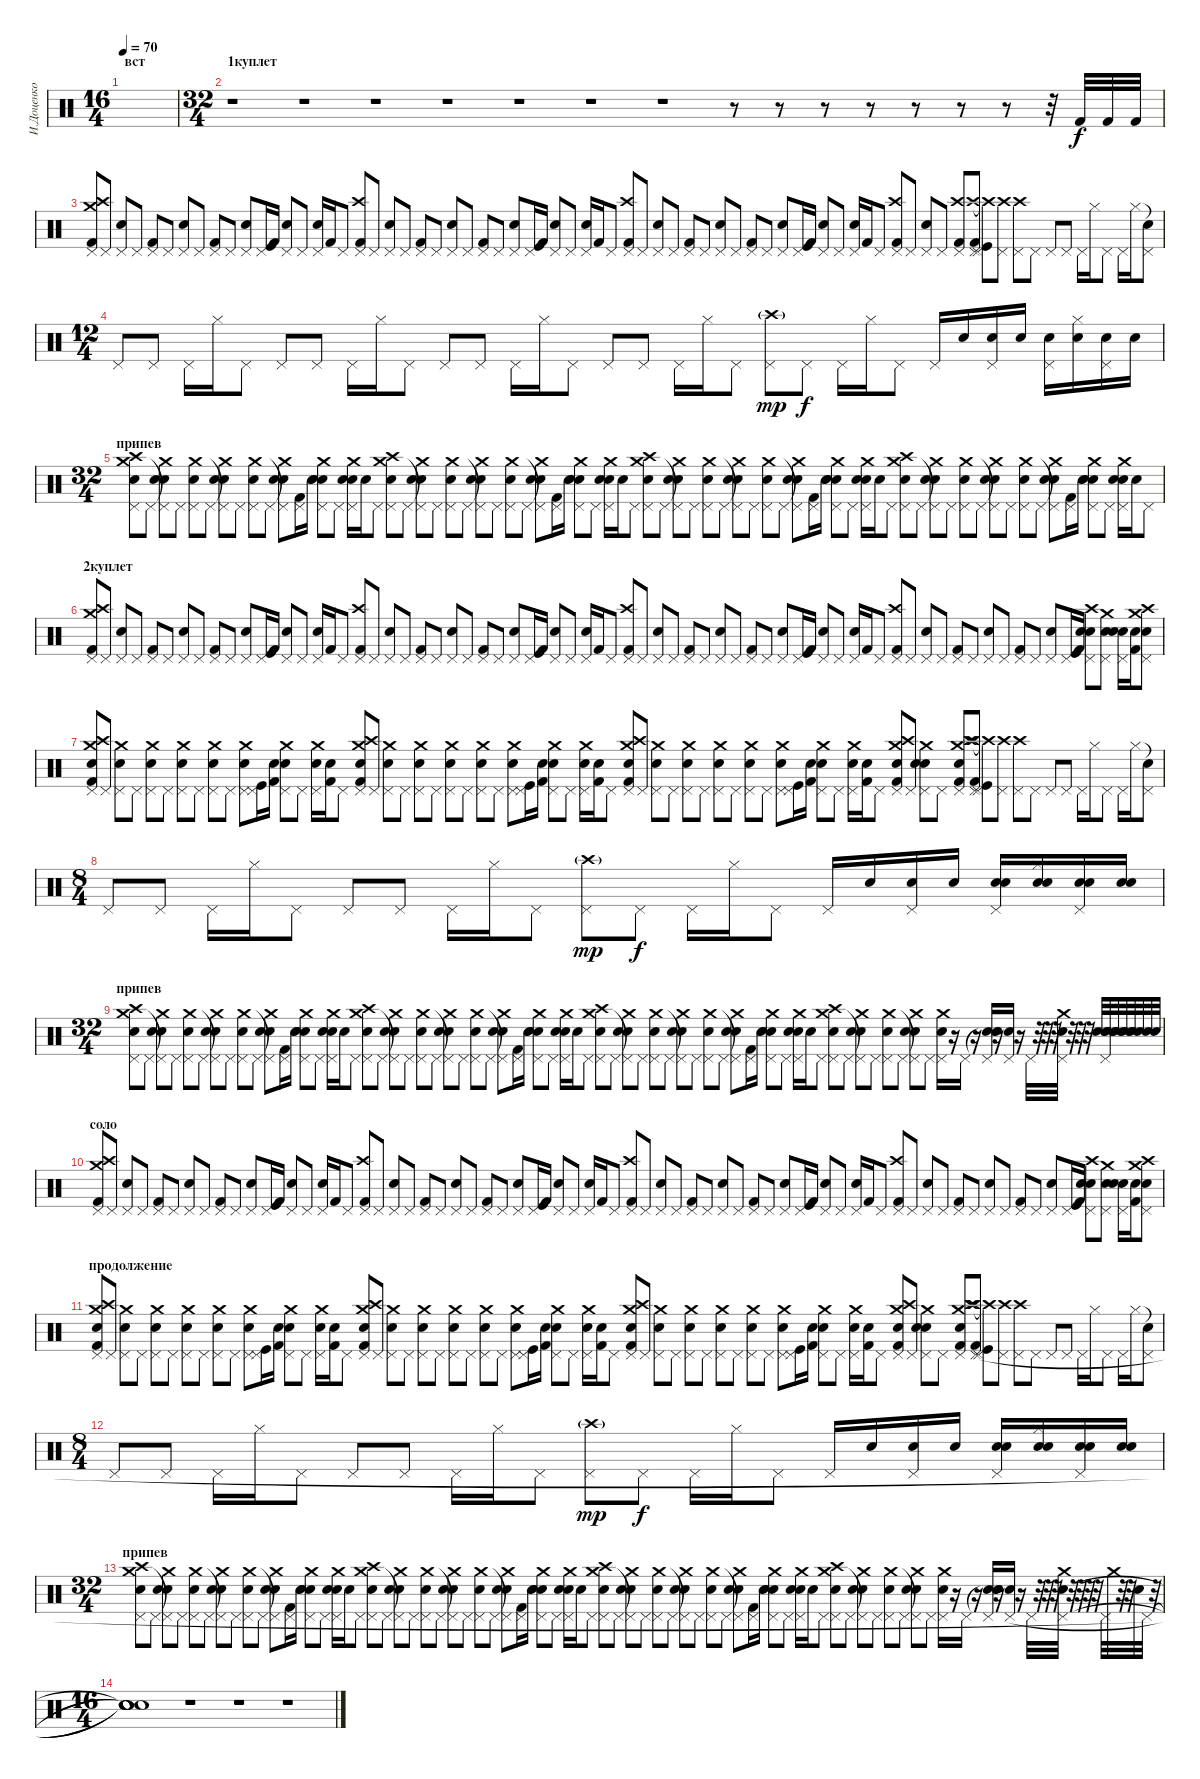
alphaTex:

\track ("И.Доценко" "И.Доценко") {instrument percussion}
\staff {score}
\articulation defaults
\ts (16 4)
\section ("" "вст")
\tempo 70
\clef neutral
\ks c
|
\ts (32 4)
\section ("" "1куплет")
r.1 r.1 r.1 r.1 r.1 r.1 r.1 r.8 r.8 r.8 r.8 r.8 r.8 r.8 r.32 "Kick (hit) 2".32 "Kick (hit) 2".32 "Kick (hit) 2".32 |
("Crash medium (hit)" "Crash high (hit)" "Kick (hit) 2" "Pedal Hi-Hat (hit)").8 "Pedal Hi-Hat (hit)".8 ("Electric Snare (hit)" "Pedal Hi-Hat (hit)").8 "Pedal Hi-Hat (hit)".8 ("Kick (hit) 2" "Pedal Hi-Hat (hit)").8 "Pedal Hi-Hat (hit)".8 ("Electric Snare (hit)" "Pedal Hi-Hat (hit)").8 "Pedal Hi-Hat (hit)".8 ("Kick (hit) 2" "Pedal Hi-Hat (hit)").8 "Pedal Hi-Hat (hit)".8 ("Electric Snare (hit)" "Pedal Hi-Hat (hit)").8 ("Kick (hit)" "Pedal Hi-Hat (hit)").16 "Kick (hit) 2".16 ("Electric Snare (hit)" "Pedal Hi-Hat (hit)").8 "Pedal Hi-Hat (hit)".8 ("Electric Snare (hit)" "Pedal Hi-Hat (hit)").16 "Kick (hit) 2".16 "Pedal Hi-Hat (hit)".8 ("Crash high (hit)" "Kick (hit) 2" "Pedal Hi-Hat (hit)").8 "Pedal Hi-Hat (hit)".8 ("Electric Snare (hit)" "Pedal Hi-Hat (hit)").8 "Pedal Hi-Hat (hit)".8 ("Kick (hit) 2" "Pedal Hi-Hat (hit)").8 "Pedal Hi-Hat (hit)".8 ("Electric Snare (hit)" "Pedal Hi-Hat (hit)").8 "Pedal Hi-Hat (hit)".8 ("Kick (hit) 2" "Pedal Hi-Hat (hit)").8 "Pedal Hi-Hat (hit)".8 ("Electric Snare (hit)" "Pedal Hi-Hat (hit)").8 ("Kick (hit)" "Pedal Hi-Hat (hit)").16 "Kick (hit) 2".16 ("Electric Snare (hit)" "Pedal Hi-Hat (hit)").8 "Pedal Hi-Hat (hit)".8 ("Electric Snare (hit)" "Pedal Hi-Hat (hit)").16 "Kick (hit) 2".16 "Pedal Hi-Hat (hit)".8 ("Crash high (hit)" "Kick (hit) 2" "Pedal Hi-Hat (hit)").8 "Pedal Hi-Hat (hit)".8 ("Electric Snare (hit)" "Pedal Hi-Hat (hit)").8 "Pedal Hi-Hat (hit)".8 ("Kick (hit) 2" "Pedal Hi-Hat (hit)").8 "Pedal Hi-Hat (hit)".8 ("Electric Snare (hit)" "Pedal Hi-Hat (hit)").8 "Pedal Hi-Hat (hit)".8 ("Kick (hit) 2" "Pedal Hi-Hat (hit)").8 "Pedal Hi-Hat (hit)".8 ("Electric Snare (hit)" "Pedal Hi-Hat (hit)").8 ("Kick (hit)" "Pedal Hi-Hat (hit)").16 "Kick (hit) 2".16 ("Electric Snare (hit)" "Pedal Hi-Hat (hit)").8 "Pedal Hi-Hat (hit)".8 ("Electric Snare (hit)" "Pedal Hi-Hat (hit)").16 "Kick (hit) 2".16 "Pedal Hi-Hat (hit)".8 ("Crash high (hit)" "Kick (hit) 2" "Pedal Hi-Hat (hit)").8 "Pedal Hi-Hat (hit)".8 ("Electric Snare (hit)" "Pedal Hi-Hat (hit)").8 "Pedal Hi-Hat (hit)".8 ("Crash high (hit)" "Kick (hit) 2" "Pedal Hi-Hat (hit)").8 ("Crash high (hit)" "Kick (hit) 2" "Pedal Hi-Hat (hit)").8 ("Crash high (hit)"{t} "Kick (hit)" "Pedal Hi-Hat (hit)").8 ("Crash high (hit)" "Pedal Hi-Hat (hit)").8 ("Crash high (hit)" "Pedal Hi-Hat (hit)").8 "Pedal Hi-Hat (hit)".8{volume 12} "Pedal Hi-Hat (hit)".8 "Pedal Hi-Hat (hit)".8 "Pedal Hi-Hat (hit)".16 "Hi-Hat (closed)".16 "Pedal Hi-Hat (hit)".8 "Pedal Hi-Hat (hit)".16 "Hi-Hat (closed)".16 ("Snare (hit)"{t} "Pedal Hi-Hat (hit)").8 |
\ts (12 4)
"Pedal Hi-Hat (hit)".8 "Pedal Hi-Hat (hit)".8 "Pedal Hi-Hat (hit)".16 "Hi-Hat (closed)".16 "Pedal Hi-Hat (hit)".8 "Pedal Hi-Hat (hit)".8 "Pedal Hi-Hat (hit)".8 "Pedal Hi-Hat (hit)".16 "Hi-Hat (closed)".16 "Pedal Hi-Hat (hit)".8 "Pedal Hi-Hat (hit)".8 "Pedal Hi-Hat (hit)".8 "Pedal Hi-Hat (hit)".16 "Hi-Hat (closed)".16 "Pedal Hi-Hat (hit)".8 "Pedal Hi-Hat (hit)".8 "Pedal Hi-Hat (hit)".8 "Pedal Hi-Hat (hit)".16 "Hi-Hat (closed)".16 "Pedal Hi-Hat (hit)".8 ("Crash high (hit)"{g} "Pedal Hi-Hat (hit)").8{dy mp volume 16} "Pedal Hi-Hat (hit)".8{dy f} "Pedal Hi-Hat (hit)".16 "Hi-Hat (closed)".16 "Pedal Hi-Hat (hit)".8 "Pedal Hi-Hat (hit)".16 "Snare (hit) 2".16 ("Snare (hit) 2" "Pedal Hi-Hat (hit)").16 "Snare (hit) 2".16 ("Snare (hit) 2" "Pedal Hi-Hat (hit)").16 ("Snare (hit) 2" "Hi-Hat (closed)").16 ("Snare (hit) 2" "Pedal Hi-Hat (hit)").16 "Snare (hit) 2".16 |
\ts (32 4)
\section ("" "припев")
("Crash medium (hit)" "Crash high (hit)" "Snare (hit) 2" "Pedal Hi-Hat (hit)").8 "Pedal Hi-Hat (hit)".8 ("Crash medium (hit)"{t} "Snare (hit) 2" "Electric Snare (hit)" "Pedal Hi-Hat (hit)").8 "Pedal Hi-Hat (hit)".8 ("Crash medium (hit)" "Snare (hit) 2" "Pedal Hi-Hat (hit)").8 "Pedal Hi-Hat (hit)".8 ("Crash medium (hit)"{t} "Snare (hit) 2" "Electric Snare (hit)" "Pedal Hi-Hat (hit)").8 "Pedal Hi-Hat (hit)".8 ("Crash medium (hit)" "Snare (hit) 2" "Pedal Hi-Hat (hit)").8 "Pedal Hi-Hat (hit)".8 ("Crash medium (hit)"{t} "Snare (hit) 2" "Electric Snare (hit)" "Pedal Hi-Hat (hit)").8 ("Kick (hit) 2" "Pedal Hi-Hat (hit)").16 "Snare (hit) 2".16 ("Crash medium (hit)" "Snare (hit) 2" "Electric Snare (hit)" "Pedal Hi-Hat (hit)").8 "Pedal Hi-Hat (hit)".8 ("Crash medium (hit)" "Snare (hit) 2" "Electric Snare (hit)" "Pedal Hi-Hat (hit)").16 "Snare (hit) 2".16 "Pedal Hi-Hat (hit)".8 ("Crash medium (hit)" "Crash high (hit)" "Snare (hit) 2" "Pedal Hi-Hat (hit)").8 "Pedal Hi-Hat (hit)".8 ("Crash medium (hit)"{t} "Snare (hit) 2" "Electric Snare (hit)" "Pedal Hi-Hat (hit)").8 "Pedal Hi-Hat (hit)".8 ("Crash medium (hit)" "Snare (hit) 2" "Pedal Hi-Hat (hit)").8 "Pedal Hi-Hat (hit)".8 ("Crash medium (hit)"{t} "Snare (hit) 2" "Electric Snare (hit)" "Pedal Hi-Hat (hit)").8 "Pedal Hi-Hat (hit)".8 ("Crash medium (hit)" "Snare (hit) 2" "Pedal Hi-Hat (hit)").8 "Pedal Hi-Hat (hit)".8 ("Crash medium (hit)"{t} "Snare (hit) 2" "Electric Snare (hit)" "Pedal Hi-Hat (hit)").8 ("Kick (hit) 2" "Pedal Hi-Hat (hit)").16 "Snare (hit) 2".16 ("Crash medium (hit)" "Snare (hit) 2" "Electric Snare (hit)" "Pedal Hi-Hat (hit)").8 "Pedal Hi-Hat (hit)".8 ("Crash medium (hit)" "Snare (hit) 2" "Electric Snare (hit)" "Pedal Hi-Hat (hit)").16 "Snare (hit) 2".16 "Pedal Hi-Hat (hit)".8 ("Crash medium (hit)" "Crash high (hit)" "Snare (hit) 2" "Pedal Hi-Hat (hit)").8 "Pedal Hi-Hat (hit)".8 ("Crash medium (hit)"{t} "Snare (hit) 2" "Electric Snare (hit)" "Pedal Hi-Hat (hit)").8 "Pedal Hi-Hat (hit)".8 ("Crash medium (hit)" "Snare (hit) 2" "Pedal Hi-Hat (hit)").8 "Pedal Hi-Hat (hit)".8 ("Crash medium (hit)"{t} "Snare (hit) 2" "Electric Snare (hit)" "Pedal Hi-Hat (hit)").8 "Pedal Hi-Hat (hit)".8 ("Crash medium (hit)" "Snare (hit) 2" "Pedal Hi-Hat (hit)").8 "Pedal Hi-Hat (hit)".8 ("Crash medium (hit)"{t} "Snare (hit) 2" "Electric Snare (hit)" "Pedal Hi-Hat (hit)").8 ("Kick (hit) 2" "Pedal Hi-Hat (hit)").16 "Snare (hit) 2".16 ("Crash medium (hit)" "Snare (hit) 2" "Electric Snare (hit)" "Pedal Hi-Hat (hit)").8 "Pedal Hi-Hat (hit)".8 ("Crash medium (hit)" "Snare (hit) 2" "Electric Snare (hit)" "Pedal Hi-Hat (hit)").16 "Snare (hit) 2".16 "Pedal Hi-Hat (hit)".8 ("Crash medium (hit)" "Crash high (hit)" "Snare (hit) 2" "Pedal Hi-Hat (hit)").8 "Pedal Hi-Hat (hit)".8 ("Crash medium (hit)"{t} "Snare (hit) 2" "Electric Snare (hit)" "Pedal Hi-Hat (hit)").8 "Pedal Hi-Hat (hit)".8 ("Crash medium (hit)" "Snare (hit) 2" "Pedal Hi-Hat (hit)").8 "Pedal Hi-Hat (hit)".8 ("Crash medium (hit)"{t} "Snare (hit) 2" "Electric Snare (hit)" "Pedal Hi-Hat (hit)").8 "Pedal Hi-Hat (hit)".8 ("Crash medium (hit)" "Snare (hit) 2" "Pedal Hi-Hat (hit)").8 "Pedal Hi-Hat (hit)".8 ("Crash medium (hit)"{t} "Snare (hit) 2" "Electric Snare (hit)" "Pedal Hi-Hat (hit)").8 ("Kick (hit) 2" "Pedal Hi-Hat (hit)").16 "Snare (hit) 2".16 ("Crash medium (hit)" "Snare (hit) 2" "Electric Snare (hit)" "Pedal Hi-Hat (hit)").8 "Pedal Hi-Hat (hit)".8 ("Crash medium (hit)" "Snare (hit) 2" "Electric Snare (hit)" "Pedal Hi-Hat (hit)").16 "Snare (hit) 2".16 "Pedal Hi-Hat (hit)".8 |
\section ("" "2куплет")
("Crash medium (hit)" "Crash high (hit)" "Kick (hit) 2" "Pedal Hi-Hat (hit)").8 "Pedal Hi-Hat (hit)".8 ("Electric Snare (hit)" "Pedal Hi-Hat (hit)").8 "Pedal Hi-Hat (hit)".8 ("Kick (hit) 2" "Pedal Hi-Hat (hit)").8 "Pedal Hi-Hat (hit)".8 ("Electric Snare (hit)" "Pedal Hi-Hat (hit)").8 "Pedal Hi-Hat (hit)".8 ("Kick (hit) 2" "Pedal Hi-Hat (hit)").8 "Pedal Hi-Hat (hit)".8 ("Electric Snare (hit)" "Pedal Hi-Hat (hit)").8 ("Kick (hit)" "Pedal Hi-Hat (hit)").16 "Kick (hit) 2".16 ("Electric Snare (hit)" "Pedal Hi-Hat (hit)").8 "Pedal Hi-Hat (hit)".8 ("Electric Snare (hit)" "Pedal Hi-Hat (hit)").16 "Kick (hit) 2".16 "Pedal Hi-Hat (hit)".8 ("Crash high (hit)" "Kick (hit) 2" "Pedal Hi-Hat (hit)").8 "Pedal Hi-Hat (hit)".8 ("Electric Snare (hit)" "Pedal Hi-Hat (hit)").8 "Pedal Hi-Hat (hit)".8 ("Kick (hit) 2" "Pedal Hi-Hat (hit)").8 "Pedal Hi-Hat (hit)".8 ("Electric Snare (hit)" "Pedal Hi-Hat (hit)").8 "Pedal Hi-Hat (hit)".8 ("Kick (hit) 2" "Pedal Hi-Hat (hit)").8 "Pedal Hi-Hat (hit)".8 ("Electric Snare (hit)" "Pedal Hi-Hat (hit)").8 ("Kick (hit)" "Pedal Hi-Hat (hit)").16 "Kick (hit) 2".16 ("Electric Snare (hit)" "Pedal Hi-Hat (hit)").8 "Pedal Hi-Hat (hit)".8 ("Electric Snare (hit)" "Pedal Hi-Hat (hit)").16 "Kick (hit) 2".16 "Pedal Hi-Hat (hit)".8 ("Crash high (hit)" "Kick (hit) 2" "Pedal Hi-Hat (hit)").8 "Pedal Hi-Hat (hit)".8 ("Electric Snare (hit)" "Pedal Hi-Hat (hit)").8 "Pedal Hi-Hat (hit)".8 ("Kick (hit) 2" "Pedal Hi-Hat (hit)").8 "Pedal Hi-Hat (hit)".8 ("Electric Snare (hit)" "Pedal Hi-Hat (hit)").8 "Pedal Hi-Hat (hit)".8 ("Kick (hit) 2" "Pedal Hi-Hat (hit)").8 "Pedal Hi-Hat (hit)".8 ("Electric Snare (hit)" "Pedal Hi-Hat (hit)").8 ("Kick (hit)" "Pedal Hi-Hat (hit)").16 "Kick (hit) 2".16 ("Electric Snare (hit)" "Pedal Hi-Hat (hit)").8 "Pedal Hi-Hat (hit)".8 ("Electric Snare (hit)" "Pedal Hi-Hat (hit)").16 "Kick (hit) 2".16 "Pedal Hi-Hat (hit)".8 ("Crash high (hit)" "Kick (hit) 2" "Pedal Hi-Hat (hit)").8 "Pedal Hi-Hat (hit)".8 ("Electric Snare (hit)" "Pedal Hi-Hat (hit)").8 "Pedal Hi-Hat (hit)".8 ("Kick (hit) 2" "Pedal Hi-Hat (hit)").8 "Pedal Hi-Hat (hit)".8 ("Electric Snare (hit)" "Pedal Hi-Hat (hit)").8 "Pedal Hi-Hat (hit)".8 ("Kick (hit) 2" "Pedal Hi-Hat (hit)").8 "Pedal Hi-Hat (hit)".8 ("Electric Snare (hit)" "Pedal Hi-Hat (hit)").8 ("Kick (hit)" "Pedal Hi-Hat (hit)").16 "Kick (hit) 2".16 ("Crash high (hit)" "Snare (hit) 2" "Electric Snare (hit)" "Pedal Hi-Hat (hit)").8 ("Crash medium (hit)" "Snare (hit) 2" "Pedal Hi-Hat (hit)").8 ("Snare (hit) 2" "Electric Snare (hit)" "Pedal Hi-Hat (hit)").16 ("Snare (hit) 2" "Kick (hit) 2").16 ("Crash high (hit)" "Snare (hit) 2" "Crash medium (hit)" "Pedal Hi-Hat (hit)").8 |
("Crash medium (hit)" "Crash high (hit)" "Kick (hit) 2" "Snare (hit) 2" "Pedal Hi-Hat (hit)").8 "Pedal Hi-Hat (hit)".8 ("Crash medium (hit)" "Electric Snare (hit)" "Pedal Hi-Hat (hit)").8 "Pedal Hi-Hat (hit)".8 ("Crash medium (hit)" "Snare (hit) 2" "Pedal Hi-Hat (hit)").8 "Pedal Hi-Hat (hit)".8 ("Crash medium (hit)" "Electric Snare (hit)" "Pedal Hi-Hat (hit)").8 "Pedal Hi-Hat (hit)".8 ("Crash medium (hit)" "Snare (hit) 2" "Pedal Hi-Hat (hit)").8 "Pedal Hi-Hat (hit)".8 ("Crash medium (hit)" "Electric Snare (hit)" "Pedal Hi-Hat (hit)").8 ("Kick (hit)" "Pedal Hi-Hat (hit)").16 ("Snare (hit) 2" "Kick (hit) 2").16 ("Crash medium (hit)" "Electric Snare (hit)" "Pedal Hi-Hat (hit)").8 "Pedal Hi-Hat (hit)".8 ("Crash medium (hit)" "Electric Snare (hit)" "Pedal Hi-Hat (hit)").16 ("Snare (hit) 2" "Kick (hit) 2").16 "Pedal Hi-Hat (hit)".8 ("Crash high (hit)" "Crash medium (hit)" "Kick (hit) 2" "Snare (hit) 2" "Pedal Hi-Hat (hit)").8 "Pedal Hi-Hat (hit)".8 ("Crash medium (hit)" "Electric Snare (hit)" "Pedal Hi-Hat (hit)").8 "Pedal Hi-Hat (hit)".8 ("Crash medium (hit)" "Snare (hit) 2" "Pedal Hi-Hat (hit)").8 "Pedal Hi-Hat (hit)".8 ("Crash medium (hit)" "Electric Snare (hit)" "Pedal Hi-Hat (hit)").8 "Pedal Hi-Hat (hit)".8 ("Crash medium (hit)" "Snare (hit) 2" "Pedal Hi-Hat (hit)").8 "Pedal Hi-Hat (hit)".8 ("Crash medium (hit)" "Electric Snare (hit)" "Pedal Hi-Hat (hit)").8 ("Kick (hit)" "Pedal Hi-Hat (hit)").16 ("Snare (hit) 2" "Kick (hit) 2").16 ("Crash medium (hit)" "Electric Snare (hit)" "Pedal Hi-Hat (hit)").8 "Pedal Hi-Hat (hit)".8 ("Crash medium (hit)" "Electric Snare (hit)" "Pedal Hi-Hat (hit)").16 ("Snare (hit) 2" "Kick (hit) 2").16 "Pedal Hi-Hat (hit)".8 ("Crash high (hit)" "Crash medium (hit)" "Kick (hit) 2" "Snare (hit) 2" "Pedal Hi-Hat (hit)").8 "Pedal Hi-Hat (hit)".8 ("Crash medium (hit)" "Electric Snare (hit)" "Pedal Hi-Hat (hit)").8 "Pedal Hi-Hat (hit)".8 ("Crash medium (hit)" "Snare (hit) 2" "Pedal Hi-Hat (hit)").8 "Pedal Hi-Hat (hit)".8 ("Crash medium (hit)" "Electric Snare (hit)" "Pedal Hi-Hat (hit)").8 "Pedal Hi-Hat (hit)".8 ("Crash medium (hit)" "Snare (hit) 2" "Pedal Hi-Hat (hit)").8 "Pedal Hi-Hat (hit)".8 ("Crash medium (hit)" "Electric Snare (hit)" "Pedal Hi-Hat (hit)").8 ("Kick (hit)" "Pedal Hi-Hat (hit)").16 ("Snare (hit) 2" "Kick (hit) 2").16 ("Crash medium (hit)" "Electric Snare (hit)" "Pedal Hi-Hat (hit)").8 "Pedal Hi-Hat (hit)".8 ("Crash medium (hit)" "Electric Snare (hit)" "Pedal Hi-Hat (hit)").16 ("Snare (hit) 2" "Kick (hit) 2").16 "Pedal Hi-Hat (hit)".8 ("Crash high (hit)" "Crash medium (hit)" "Kick (hit) 2" "Snare (hit) 2" "Pedal Hi-Hat (hit)").8 "Pedal Hi-Hat (hit)".8 ("Crash medium (hit)" "Electric Snare (hit)" "Snare (hit) 2" "Pedal Hi-Hat (hit)").8 "Pedal Hi-Hat (hit)".8 ("Crash medium (hit)" "Crash high (hit)" "Kick (hit) 2" "Snare (hit) 2" "Pedal Hi-Hat (hit)").8 ("Crash high (hit)" "Kick (hit) 2" "Pedal Hi-Hat (hit)").8 ("Crash high (hit)"{t} "Kick (hit)" "Pedal Hi-Hat (hit)").8 ("Crash high (hit)" "Pedal Hi-Hat (hit)").8 ("Crash high (hit)" "Pedal Hi-Hat (hit)").8 "Pedal Hi-Hat (hit)".8 "Pedal Hi-Hat (hit)".8 "Pedal Hi-Hat (hit)".8 "Pedal Hi-Hat (hit)".16 "Hi-Hat (closed)".16 "Pedal Hi-Hat (hit)".8 "Pedal Hi-Hat (hit)".16 "Hi-Hat (closed)".16 ("Snare (hit)"{t} "Pedal Hi-Hat (hit)").8 |
\ts (8 4)
"Pedal Hi-Hat (hit)".8 "Pedal Hi-Hat (hit)".8 "Pedal Hi-Hat (hit)".16 "Hi-Hat (closed)".16 "Pedal Hi-Hat (hit)".8 "Pedal Hi-Hat (hit)".8 "Pedal Hi-Hat (hit)".8 "Pedal Hi-Hat (hit)".16 "Hi-Hat (closed)".16 "Pedal Hi-Hat (hit)".8 ("Crash high (hit)"{g} "Pedal Hi-Hat (hit)").8{dy mp} "Pedal Hi-Hat (hit)".8{dy f} "Pedal Hi-Hat (hit)".16 "Hi-Hat (closed)".16 "Pedal Hi-Hat (hit)".8 "Pedal Hi-Hat (hit)".16 "Snare (hit) 2".16 ("Snare (hit) 2" "Pedal Hi-Hat (hit)").16 "Snare (hit) 2".16 ("Electric Snare (hit)" "Snare (hit) 2" "Pedal Hi-Hat (hit)").16 ("Electric Snare (hit)" "Snare (hit) 2" "Hi-Hat (closed)").16 ("Electric Snare (hit)" "Snare (hit) 2" "Pedal Hi-Hat (hit)").16 ("Electric Snare (hit)" "Snare (hit) 2").16 |
\ts (32 4)
\section ("" "припев")
("Crash medium (hit)" "Crash high (hit)" "Snare (hit) 2" "Pedal Hi-Hat (hit)").8 "Pedal Hi-Hat (hit)".8 ("Crash medium (hit)"{t} "Snare (hit) 2" "Electric Snare (hit)" "Pedal Hi-Hat (hit)").8 "Pedal Hi-Hat (hit)".8 ("Crash medium (hit)" "Snare (hit) 2" "Pedal Hi-Hat (hit)").8 "Pedal Hi-Hat (hit)".8 ("Crash medium (hit)"{t} "Snare (hit) 2" "Electric Snare (hit)" "Pedal Hi-Hat (hit)").8 "Pedal Hi-Hat (hit)".8 ("Crash medium (hit)" "Snare (hit) 2" "Pedal Hi-Hat (hit)").8 "Pedal Hi-Hat (hit)".8 ("Crash medium (hit)"{t} "Snare (hit) 2" "Electric Snare (hit)" "Pedal Hi-Hat (hit)").8 ("Kick (hit) 2" "Pedal Hi-Hat (hit)").16 "Snare (hit) 2".16 ("Crash medium (hit)" "Snare (hit) 2" "Electric Snare (hit)" "Pedal Hi-Hat (hit)").8 "Pedal Hi-Hat (hit)".8 ("Crash medium (hit)" "Snare (hit) 2" "Electric Snare (hit)" "Pedal Hi-Hat (hit)").16 "Snare (hit) 2".16 "Pedal Hi-Hat (hit)".8 ("Crash medium (hit)" "Crash high (hit)" "Snare (hit) 2" "Pedal Hi-Hat (hit)").8 "Pedal Hi-Hat (hit)".8 ("Crash medium (hit)"{t} "Snare (hit) 2" "Electric Snare (hit)" "Pedal Hi-Hat (hit)").8 "Pedal Hi-Hat (hit)".8 ("Crash medium (hit)" "Snare (hit) 2" "Pedal Hi-Hat (hit)").8 "Pedal Hi-Hat (hit)".8 ("Crash medium (hit)"{t} "Snare (hit) 2" "Electric Snare (hit)" "Pedal Hi-Hat (hit)").8 "Pedal Hi-Hat (hit)".8 ("Crash medium (hit)" "Snare (hit) 2" "Pedal Hi-Hat (hit)").8 "Pedal Hi-Hat (hit)".8 ("Crash medium (hit)"{t} "Snare (hit) 2" "Electric Snare (hit)" "Pedal Hi-Hat (hit)").8 ("Kick (hit) 2" "Pedal Hi-Hat (hit)").16 "Snare (hit) 2".16 ("Crash medium (hit)" "Snare (hit) 2" "Electric Snare (hit)" "Pedal Hi-Hat (hit)").8 "Pedal Hi-Hat (hit)".8 ("Crash medium (hit)" "Snare (hit) 2" "Electric Snare (hit)" "Pedal Hi-Hat (hit)").16 "Snare (hit) 2".16 "Pedal Hi-Hat (hit)".8 ("Crash medium (hit)" "Crash high (hit)" "Snare (hit) 2" "Pedal Hi-Hat (hit)").8 "Pedal Hi-Hat (hit)".8 ("Crash medium (hit)"{t} "Snare (hit) 2" "Electric Snare (hit)" "Pedal Hi-Hat (hit)").8 "Pedal Hi-Hat (hit)".8 ("Crash medium (hit)" "Snare (hit) 2" "Pedal Hi-Hat (hit)").8 "Pedal Hi-Hat (hit)".8 ("Crash medium (hit)"{t} "Snare (hit) 2" "Electric Snare (hit)" "Pedal Hi-Hat (hit)").8 "Pedal Hi-Hat (hit)".8 ("Crash medium (hit)" "Snare (hit) 2" "Pedal Hi-Hat (hit)").8 "Pedal Hi-Hat (hit)".8 ("Crash medium (hit)"{t} "Snare (hit) 2" "Electric Snare (hit)" "Pedal Hi-Hat (hit)").8 ("Kick (hit) 2" "Pedal Hi-Hat (hit)").16 "Snare (hit) 2".16 ("Crash medium (hit)" "Snare (hit) 2" "Electric Snare (hit)" "Pedal Hi-Hat (hit)").8 "Pedal Hi-Hat (hit)".8 ("Crash medium (hit)" "Snare (hit) 2" "Electric Snare (hit)" "Pedal Hi-Hat (hit)").16 "Snare (hit) 2".16 "Pedal Hi-Hat (hit)".8 ("Crash medium (hit)" "Crash high (hit)" "Snare (hit) 2" "Pedal Hi-Hat (hit)").8 "Pedal Hi-Hat (hit)".8 ("Crash medium (hit)"{t} "Snare (hit) 2" "Electric Snare (hit)" "Pedal Hi-Hat (hit)").8 "Pedal Hi-Hat (hit)".8 ("Crash medium (hit)" "Snare (hit) 2" "Pedal Hi-Hat (hit)").8 "Pedal Hi-Hat (hit)".8 ("Crash medium (hit)"{t} "Snare (hit) 2" "Electric Snare (hit)" "Pedal Hi-Hat (hit)").8 "Pedal Hi-Hat (hit)".8 ("Crash medium (hit)" "Snare (hit) 2" "Pedal Hi-Hat (hit)").16 r.16 "Pedal Hi-Hat (hit)".16 r.16 ("Snare (hit)"{t} "Snare (hit) 2" "Electric Snare (hit)" "Pedal Hi-Hat (hit)").16 r.16 ("Snare (hit) 2" "Pedal Hi-Hat (hit)").16 r.16 "Pedal Hi-Hat (hit)".32 r.32 r.32 r.32 ("Crash medium (hit)" "Snare (hit) 2" "Pedal Hi-Hat (hit)").32 r.32 r.32 r.32 ("Snare (hit) 2" "Electric Snare (hit)").32 ("Snare (hit) 2" "Electric Snare (hit)" "Pedal Hi-Hat (hit)").32 ("Snare (hit) 2" "Electric Snare (hit)").32 ("Snare (hit) 2" "Electric Snare (hit)").32 "Snare (hit) 2".32 "Snare (hit) 2".32 "Snare (hit) 2".32 "Snare (hit) 2".32 |
\section ("" "соло")
("Crash medium (hit)" "Crash high (hit)" "Kick (hit) 2" "Pedal Hi-Hat (hit)").8 "Pedal Hi-Hat (hit)".8 ("Electric Snare (hit)" "Pedal Hi-Hat (hit)").8 "Pedal Hi-Hat (hit)".8 ("Kick (hit) 2" "Pedal Hi-Hat (hit)").8 "Pedal Hi-Hat (hit)".8 ("Electric Snare (hit)" "Pedal Hi-Hat (hit)").8 "Pedal Hi-Hat (hit)".8 ("Kick (hit) 2" "Pedal Hi-Hat (hit)").8 "Pedal Hi-Hat (hit)".8 ("Electric Snare (hit)" "Pedal Hi-Hat (hit)").8 ("Kick (hit)" "Pedal Hi-Hat (hit)").16 "Kick (hit) 2".16 ("Electric Snare (hit)" "Pedal Hi-Hat (hit)").8 "Pedal Hi-Hat (hit)".8 ("Electric Snare (hit)" "Pedal Hi-Hat (hit)").16 "Kick (hit) 2".16 "Pedal Hi-Hat (hit)".8 ("Crash high (hit)" "Kick (hit) 2" "Pedal Hi-Hat (hit)").8 "Pedal Hi-Hat (hit)".8 ("Electric Snare (hit)" "Pedal Hi-Hat (hit)").8 "Pedal Hi-Hat (hit)".8 ("Kick (hit) 2" "Pedal Hi-Hat (hit)").8 "Pedal Hi-Hat (hit)".8 ("Electric Snare (hit)" "Pedal Hi-Hat (hit)").8 "Pedal Hi-Hat (hit)".8 ("Kick (hit) 2" "Pedal Hi-Hat (hit)").8 "Pedal Hi-Hat (hit)".8 ("Electric Snare (hit)" "Pedal Hi-Hat (hit)").8 ("Kick (hit)" "Pedal Hi-Hat (hit)").16 "Kick (hit) 2".16 ("Electric Snare (hit)" "Pedal Hi-Hat (hit)").8 "Pedal Hi-Hat (hit)".8 ("Electric Snare (hit)" "Pedal Hi-Hat (hit)").16 "Kick (hit) 2".16 "Pedal Hi-Hat (hit)".8 ("Crash high (hit)" "Kick (hit) 2" "Pedal Hi-Hat (hit)").8 "Pedal Hi-Hat (hit)".8 ("Electric Snare (hit)" "Pedal Hi-Hat (hit)").8 "Pedal Hi-Hat (hit)".8 ("Kick (hit) 2" "Pedal Hi-Hat (hit)").8 "Pedal Hi-Hat (hit)".8 ("Electric Snare (hit)" "Pedal Hi-Hat (hit)").8 "Pedal Hi-Hat (hit)".8 ("Kick (hit) 2" "Pedal Hi-Hat (hit)").8 "Pedal Hi-Hat (hit)".8 ("Electric Snare (hit)" "Pedal Hi-Hat (hit)").8 ("Kick (hit)" "Pedal Hi-Hat (hit)").16 "Kick (hit) 2".16 ("Electric Snare (hit)" "Pedal Hi-Hat (hit)").8 "Pedal Hi-Hat (hit)".8 ("Electric Snare (hit)" "Pedal Hi-Hat (hit)").16 "Kick (hit) 2".16 "Pedal Hi-Hat (hit)".8 ("Crash high (hit)" "Kick (hit) 2" "Pedal Hi-Hat (hit)").8 "Pedal Hi-Hat (hit)".8 ("Electric Snare (hit)" "Pedal Hi-Hat (hit)").8 "Pedal Hi-Hat (hit)".8 ("Kick (hit) 2" "Pedal Hi-Hat (hit)").8 "Pedal Hi-Hat (hit)".8 ("Electric Snare (hit)" "Pedal Hi-Hat (hit)").8 "Pedal Hi-Hat (hit)".8 ("Kick (hit) 2" "Pedal Hi-Hat (hit)").8 "Pedal Hi-Hat (hit)".8 ("Electric Snare (hit)" "Pedal Hi-Hat (hit)").8 ("Kick (hit)" "Pedal Hi-Hat (hit)").16 "Kick (hit) 2".16 ("Crash high (hit)" "Snare (hit) 2" "Electric Snare (hit)" "Pedal Hi-Hat (hit)").8 ("Crash medium (hit)" "Snare (hit) 2" "Pedal Hi-Hat (hit)").8 ("Snare (hit) 2" "Electric Snare (hit)" "Pedal Hi-Hat (hit)").16 ("Snare (hit) 2" "Kick (hit) 2").16 ("Crash high (hit)" "Snare (hit) 2" "Crash medium (hit)" "Pedal Hi-Hat (hit)").8 |
\section ("" "продолжение")
("Crash medium (hit)" "Crash high (hit)" "Kick (hit) 2" "Snare (hit) 2" "Pedal Hi-Hat (hit)").8 "Pedal Hi-Hat (hit)".8 ("Crash medium (hit)" "Electric Snare (hit)" "Pedal Hi-Hat (hit)").8 "Pedal Hi-Hat (hit)".8 ("Crash medium (hit)" "Snare (hit) 2" "Pedal Hi-Hat (hit)").8 "Pedal Hi-Hat (hit)".8 ("Crash medium (hit)" "Electric Snare (hit)" "Pedal Hi-Hat (hit)").8 "Pedal Hi-Hat (hit)".8 ("Crash medium (hit)" "Snare (hit) 2" "Pedal Hi-Hat (hit)").8 "Pedal Hi-Hat (hit)".8 ("Crash medium (hit)" "Electric Snare (hit)" "Pedal Hi-Hat (hit)").8 ("Kick (hit)" "Pedal Hi-Hat (hit)").16 ("Snare (hit) 2" "Kick (hit) 2").16 ("Crash medium (hit)" "Electric Snare (hit)" "Pedal Hi-Hat (hit)").8 "Pedal Hi-Hat (hit)".8 ("Crash medium (hit)" "Electric Snare (hit)" "Pedal Hi-Hat (hit)").16 ("Snare (hit) 2" "Kick (hit) 2").16 "Pedal Hi-Hat (hit)".8 ("Crash high (hit)" "Crash medium (hit)" "Kick (hit) 2" "Snare (hit) 2" "Pedal Hi-Hat (hit)").8 "Pedal Hi-Hat (hit)".8 ("Crash medium (hit)" "Electric Snare (hit)" "Pedal Hi-Hat (hit)").8 "Pedal Hi-Hat (hit)".8 ("Crash medium (hit)" "Snare (hit) 2" "Pedal Hi-Hat (hit)").8 "Pedal Hi-Hat (hit)".8 ("Crash medium (hit)" "Electric Snare (hit)" "Pedal Hi-Hat (hit)").8 "Pedal Hi-Hat (hit)".8 ("Crash medium (hit)" "Snare (hit) 2" "Pedal Hi-Hat (hit)").8 "Pedal Hi-Hat (hit)".8 ("Crash medium (hit)" "Electric Snare (hit)" "Pedal Hi-Hat (hit)").8 ("Kick (hit)" "Pedal Hi-Hat (hit)").16 ("Snare (hit) 2" "Kick (hit) 2").16 ("Crash medium (hit)" "Electric Snare (hit)" "Pedal Hi-Hat (hit)").8 "Pedal Hi-Hat (hit)".8 ("Crash medium (hit)" "Electric Snare (hit)" "Pedal Hi-Hat (hit)").16 ("Snare (hit) 2" "Kick (hit) 2").16 "Pedal Hi-Hat (hit)".8 ("Crash high (hit)" "Crash medium (hit)" "Kick (hit) 2" "Snare (hit) 2" "Pedal Hi-Hat (hit)").8 "Pedal Hi-Hat (hit)".8 ("Crash medium (hit)" "Electric Snare (hit)" "Pedal Hi-Hat (hit)").8 "Pedal Hi-Hat (hit)".8 ("Crash medium (hit)" "Snare (hit) 2" "Pedal Hi-Hat (hit)").8 "Pedal Hi-Hat (hit)".8 ("Crash medium (hit)" "Electric Snare (hit)" "Pedal Hi-Hat (hit)").8 "Pedal Hi-Hat (hit)".8 ("Crash medium (hit)" "Snare (hit) 2" "Pedal Hi-Hat (hit)").8 "Pedal Hi-Hat (hit)".8 ("Crash medium (hit)" "Electric Snare (hit)" "Pedal Hi-Hat (hit)").8 ("Kick (hit)" "Pedal Hi-Hat (hit)").16 ("Snare (hit) 2" "Kick (hit) 2").16 ("Crash medium (hit)" "Electric Snare (hit)" "Pedal Hi-Hat (hit)").8 "Pedal Hi-Hat (hit)".8 ("Crash medium (hit)" "Electric Snare (hit)" "Pedal Hi-Hat (hit)").16 ("Snare (hit) 2" "Kick (hit) 2").16 "Pedal Hi-Hat (hit)".8 ("Crash high (hit)" "Crash medium (hit)" "Kick (hit) 2" "Snare (hit) 2" "Pedal Hi-Hat (hit)").8 "Pedal Hi-Hat (hit)".8 ("Crash medium (hit)" "Electric Snare (hit)" "Snare (hit) 2" "Pedal Hi-Hat (hit)").8 "Pedal Hi-Hat (hit)".8 ("Crash medium (hit)" "Crash high (hit)" "Kick (hit) 2" "Snare (hit) 2" "Pedal Hi-Hat (hit)").8 ("Crash high (hit)" "Kick (hit) 2" "Pedal Hi-Hat (hit)").8 ("Crash high (hit)"{t} "Kick (hit)" "Pedal Hi-Hat (hit)").8 ("Crash high (hit)" "Pedal Hi-Hat (hit)").8 ("Crash high (hit)" "Pedal Hi-Hat (hit)").8 "Pedal Hi-Hat (hit)".8 "Pedal Hi-Hat (hit)".8 "Pedal Hi-Hat (hit)".8 "Pedal Hi-Hat (hit)".16 "Hi-Hat (closed)".16 "Pedal Hi-Hat (hit)".8 "Pedal Hi-Hat (hit)".16 "Hi-Hat (closed)".16 ("Snare (hit)"{t} "Pedal Hi-Hat (hit)").8 |
\ts (8 4)
"Pedal Hi-Hat (hit)".8 "Pedal Hi-Hat (hit)".8 "Pedal Hi-Hat (hit)".16 "Hi-Hat (closed)".16 "Pedal Hi-Hat (hit)".8 "Pedal Hi-Hat (hit)".8 "Pedal Hi-Hat (hit)".8 "Pedal Hi-Hat (hit)".16 "Hi-Hat (closed)".16 "Pedal Hi-Hat (hit)".8 ("Crash high (hit)"{g} "Pedal Hi-Hat (hit)").8{dy mp} "Pedal Hi-Hat (hit)".8{dy f} "Pedal Hi-Hat (hit)".16 "Hi-Hat (closed)".16 "Pedal Hi-Hat (hit)".8 "Pedal Hi-Hat (hit)".16 "Snare (hit) 2".16 ("Snare (hit) 2" "Pedal Hi-Hat (hit)").16 "Snare (hit) 2".16 ("Electric Snare (hit)" "Snare (hit) 2" "Pedal Hi-Hat (hit)").16 ("Electric Snare (hit)" "Snare (hit) 2" "Hi-Hat (closed)").16 ("Electric Snare (hit)" "Snare (hit) 2" "Pedal Hi-Hat (hit)").16 ("Electric Snare (hit)" "Snare (hit) 2").16 |
\ts (32 4)
\section ("" "припев")
("Crash medium (hit)" "Crash high (hit)" "Snare (hit) 2" "Pedal Hi-Hat (hit)").8 "Pedal Hi-Hat (hit)".8 ("Crash medium (hit)"{t} "Snare (hit) 2" "Electric Snare (hit)" "Pedal Hi-Hat (hit)").8 "Pedal Hi-Hat (hit)".8 ("Crash medium (hit)" "Snare (hit) 2" "Pedal Hi-Hat (hit)").8 "Pedal Hi-Hat (hit)".8 ("Crash medium (hit)"{t} "Snare (hit) 2" "Electric Snare (hit)" "Pedal Hi-Hat (hit)").8 "Pedal Hi-Hat (hit)".8 ("Crash medium (hit)" "Snare (hit) 2" "Pedal Hi-Hat (hit)").8 "Pedal Hi-Hat (hit)".8 ("Crash medium (hit)"{t} "Snare (hit) 2" "Electric Snare (hit)" "Pedal Hi-Hat (hit)").8 ("Kick (hit) 2" "Pedal Hi-Hat (hit)").16 "Snare (hit) 2".16 ("Crash medium (hit)" "Snare (hit) 2" "Electric Snare (hit)" "Pedal Hi-Hat (hit)").8 "Pedal Hi-Hat (hit)".8 ("Crash medium (hit)" "Snare (hit) 2" "Electric Snare (hit)" "Pedal Hi-Hat (hit)").16 "Snare (hit) 2".16 "Pedal Hi-Hat (hit)".8 ("Crash medium (hit)" "Crash high (hit)" "Snare (hit) 2" "Pedal Hi-Hat (hit)").8 "Pedal Hi-Hat (hit)".8 ("Crash medium (hit)"{t} "Snare (hit) 2" "Electric Snare (hit)" "Pedal Hi-Hat (hit)").8 "Pedal Hi-Hat (hit)".8 ("Crash medium (hit)" "Snare (hit) 2" "Pedal Hi-Hat (hit)").8 "Pedal Hi-Hat (hit)".8 ("Crash medium (hit)"{t} "Snare (hit) 2" "Electric Snare (hit)" "Pedal Hi-Hat (hit)").8 "Pedal Hi-Hat (hit)".8 ("Crash medium (hit)" "Snare (hit) 2" "Pedal Hi-Hat (hit)").8 "Pedal Hi-Hat (hit)".8 ("Crash medium (hit)"{t} "Snare (hit) 2" "Electric Snare (hit)" "Pedal Hi-Hat (hit)").8 ("Kick (hit) 2" "Pedal Hi-Hat (hit)").16 "Snare (hit) 2".16 ("Crash medium (hit)" "Snare (hit) 2" "Electric Snare (hit)" "Pedal Hi-Hat (hit)").8 "Pedal Hi-Hat (hit)".8 ("Crash medium (hit)" "Snare (hit) 2" "Electric Snare (hit)" "Pedal Hi-Hat (hit)").16 "Snare (hit) 2".16 "Pedal Hi-Hat (hit)".8 ("Crash medium (hit)" "Crash high (hit)" "Snare (hit) 2" "Pedal Hi-Hat (hit)").8 "Pedal Hi-Hat (hit)".8 ("Crash medium (hit)"{t} "Snare (hit) 2" "Electric Snare (hit)" "Pedal Hi-Hat (hit)").8 "Pedal Hi-Hat (hit)".8 ("Crash medium (hit)" "Snare (hit) 2" "Pedal Hi-Hat (hit)").8 "Pedal Hi-Hat (hit)".8 ("Crash medium (hit)"{t} "Snare (hit) 2" "Electric Snare (hit)" "Pedal Hi-Hat (hit)").8 "Pedal Hi-Hat (hit)".8 ("Crash medium (hit)" "Snare (hit) 2" "Pedal Hi-Hat (hit)").8 "Pedal Hi-Hat (hit)".8 ("Crash medium (hit)"{t} "Snare (hit) 2" "Electric Snare (hit)" "Pedal Hi-Hat (hit)").8 ("Kick (hit) 2" "Pedal Hi-Hat (hit)").16 "Snare (hit) 2".16 ("Crash medium (hit)" "Snare (hit) 2" "Electric Snare (hit)" "Pedal Hi-Hat (hit)").8 "Pedal Hi-Hat (hit)".8 ("Crash medium (hit)" "Snare (hit) 2" "Electric Snare (hit)" "Pedal Hi-Hat (hit)").16 "Snare (hit) 2".16 "Pedal Hi-Hat (hit)".8 ("Crash medium (hit)" "Crash high (hit)" "Snare (hit) 2" "Pedal Hi-Hat (hit)").8 "Pedal Hi-Hat (hit)".8 ("Crash medium (hit)"{t} "Snare (hit) 2" "Electric Snare (hit)" "Pedal Hi-Hat (hit)").8 "Pedal Hi-Hat (hit)".8 ("Crash medium (hit)" "Snare (hit) 2" "Pedal Hi-Hat (hit)").8 "Pedal Hi-Hat (hit)".8 ("Crash medium (hit)"{t} "Snare (hit) 2" "Electric Snare (hit)" "Pedal Hi-Hat (hit)").8 "Pedal Hi-Hat (hit)".8 ("Crash medium (hit)" "Snare (hit) 2" "Pedal Hi-Hat (hit)").16 r.16 "Pedal Hi-Hat (hit)".16 r.16 ("Snare (hit)"{t} "Snare (hit) 2" "Electric Snare (hit)" "Pedal Hi-Hat (hit)").16 r.16 ("Snare (hit) 2" "Pedal Hi-Hat (hit)").16 r.16 "Pedal Hi-Hat (hit)".32 r.32 r.32 r.32 ("Crash medium (hit)" "Snare (hit) 2" "Pedal Hi-Hat (hit)").32 r.32 r.32 r.32 r.32 "Pedal Hi-Hat (hit)".32 "Crash medium (hit)".32 r.32 r.32 "Snare (hit) 2".32 "Pedal Hi-Hat (hit)".32 r.32 |
\ts (16 4)
("Snare (hit)"{t} "Snare (hit)"{t} "Snare (hit)"{t} "Snare (hit)"{t} "Snare (hit)"{t}).1 r.1 r.1 r.1
